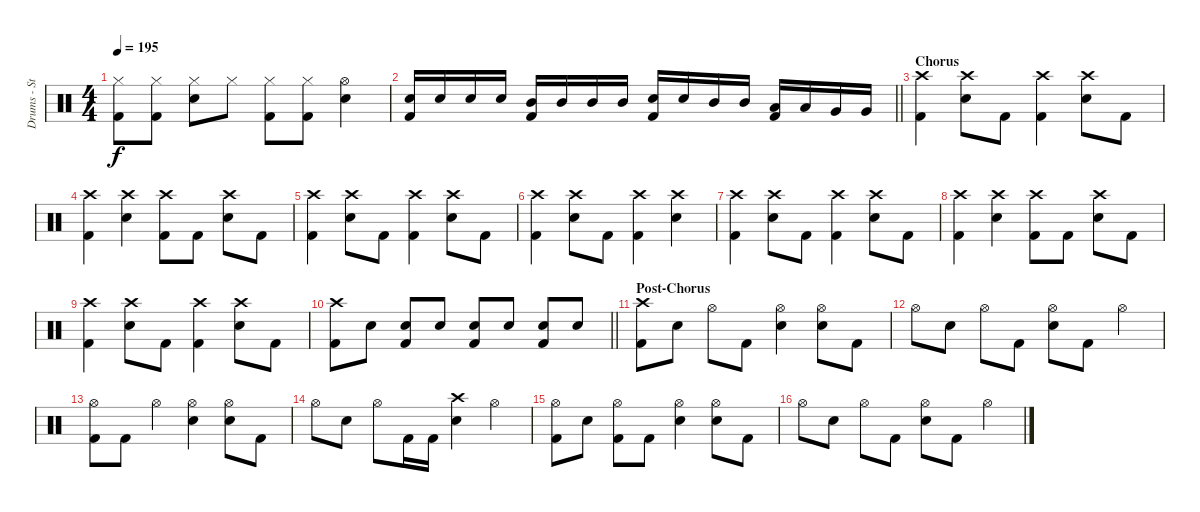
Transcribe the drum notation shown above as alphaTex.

\track ("Drums - Steve" "Drums - St") {instrument percussion}
\staff {score}
\articulation defaults
\ts (4 4)
\tempo 195
\clef neutral
\ks c
("Hi-Hat (closed)" "Kick (hit) 2").8{dy f} ("Hi-Hat (closed)" "Kick (hit) 2").8 ("Hi-Hat (closed)" "Snare (hit) 2").8 "Hi-Hat (closed)".8 ("Hi-Hat (closed)" "Kick (hit) 2").8 ("Hi-Hat (closed)" "Kick (hit) 2").8 ("Hi-Hat (open)" "Snare (hit) 2").4 |
\barLineRight lightlight
("Snare (hit) 2" "Kick (hit) 2").16 "Snare (hit) 2".16 "Snare (hit) 2".16 "Snare (hit) 2".16 ("Mid Tom (hit)" "Kick (hit) 2").16 "Mid Tom (hit)".16 "Mid Tom (hit)".16 "Mid Tom (hit)".16 ("Snare (hit) 2" "Kick (hit) 2").16 "Snare (hit) 2".16 "Mid Tom (hit)".16 "Mid Tom (hit)".16 ("Low Tom (hit)" "Kick (hit) 2").16 "Low Tom (hit)".16 "Very Low Tom (hit)".16 "Very Low Tom (hit)".16 |
\section ("" "Chorus")
("Crash high (hit)" "Kick (hit) 2").4 ("Crash high (hit)" "Snare (hit) 2").8 "Kick (hit) 2".8 ("Crash high (hit)" "Kick (hit) 2").4 ("Crash high (hit)" "Snare (hit) 2").8 "Kick (hit) 2".8 |
("Crash high (hit)" "Kick (hit) 2").4 ("Crash high (hit)" "Snare (hit) 2").4 ("Crash high (hit)" "Kick (hit) 2").8 "Kick (hit) 2".8 ("Crash high (hit)" "Snare (hit) 2").8 "Kick (hit) 2".8 |
("Crash high (hit)" "Kick (hit) 2").4 ("Crash high (hit)" "Snare (hit) 2").8 "Kick (hit) 2".8 ("Crash high (hit)" "Kick (hit) 2").4 ("Crash high (hit)" "Snare (hit) 2").8 "Kick (hit) 2".8 |
("Crash high (hit)" "Kick (hit) 2").4 ("Crash high (hit)" "Snare (hit) 2").8 "Kick (hit) 2".8 ("Crash high (hit)" "Kick (hit) 2").4 ("Crash high (hit)" "Snare (hit) 2").4 |
("Crash high (hit)" "Kick (hit) 2").4 ("Crash high (hit)" "Snare (hit) 2").8 "Kick (hit) 2".8 ("Crash high (hit)" "Kick (hit) 2").4 ("Crash high (hit)" "Snare (hit) 2").8 "Kick (hit) 2".8 |
("Crash high (hit)" "Kick (hit) 2").4 ("Crash high (hit)" "Snare (hit) 2").4 ("Crash high (hit)" "Kick (hit) 2").8 "Kick (hit) 2".8 ("Crash high (hit)" "Snare (hit) 2").8 "Kick (hit) 2".8 |
("Crash high (hit)" "Kick (hit) 2").4 ("Crash high (hit)" "Snare (hit) 2").8 "Kick (hit) 2".8 ("Crash high (hit)" "Kick (hit) 2").4 ("Crash high (hit)" "Snare (hit) 2").8 "Kick (hit) 2".8 |
\barLineRight lightlight
("Crash high (hit)" "Kick (hit) 2").8 "Snare (hit) 2".8 ("Snare (hit) 2" "Kick (hit) 2").8 "Snare (hit) 2".8 ("Snare (hit) 2" "Kick (hit) 2").8 "Snare (hit) 2".8 ("Snare (hit) 2" "Kick (hit) 2").8 "Snare (hit) 2".8 |
\section ("" "Post-Chorus")
("Crash high (hit)" "Kick (hit) 2").8 "Snare (hit) 2".8 "Hi-Hat (open)".8 "Kick (hit) 2".8 ("Hi-Hat (open)" "Snare (hit) 2").4 ("Hi-Hat (open)" "Snare (hit) 2").8 "Kick (hit) 2".8 |
"Hi-Hat (open)".8 "Snare (hit) 2".8 "Hi-Hat (open)".8 "Kick (hit) 2".8 ("Hi-Hat (open)" "Snare (hit) 2").8 "Kick (hit) 2".8 "Hi-Hat (open)".4 |
("Hi-Hat (open)" "Kick (hit) 2").8 "Kick (hit) 2".8 "Hi-Hat (open)".4 ("Hi-Hat (open)" "Snare (hit) 2").4 ("Hi-Hat (open)" "Snare (hit) 2").8 "Kick (hit) 2".8 |
"Hi-Hat (open)".8 "Snare (hit) 2".8 "Hi-Hat (open)".8 "Kick (hit) 2".16 "Kick (hit) 2".16 ("Crash high (hit)" "Snare (hit) 2").4 "Hi-Hat (open)".4 |
("Hi-Hat (open)" "Kick (hit) 2").8 "Snare (hit) 2".8 ("Hi-Hat (open)" "Kick (hit) 2").8 "Kick (hit) 2".8 ("Hi-Hat (open)" "Snare (hit) 2").4 ("Hi-Hat (open)" "Snare (hit) 2").8 "Kick (hit) 2".8 |
"Hi-Hat (open)".8 "Snare (hit) 2".8 "Hi-Hat (open)".8 "Kick (hit) 2".8 ("Hi-Hat (open)" "Snare (hit) 2").8 "Kick (hit) 2".8 "Hi-Hat (open)".4
